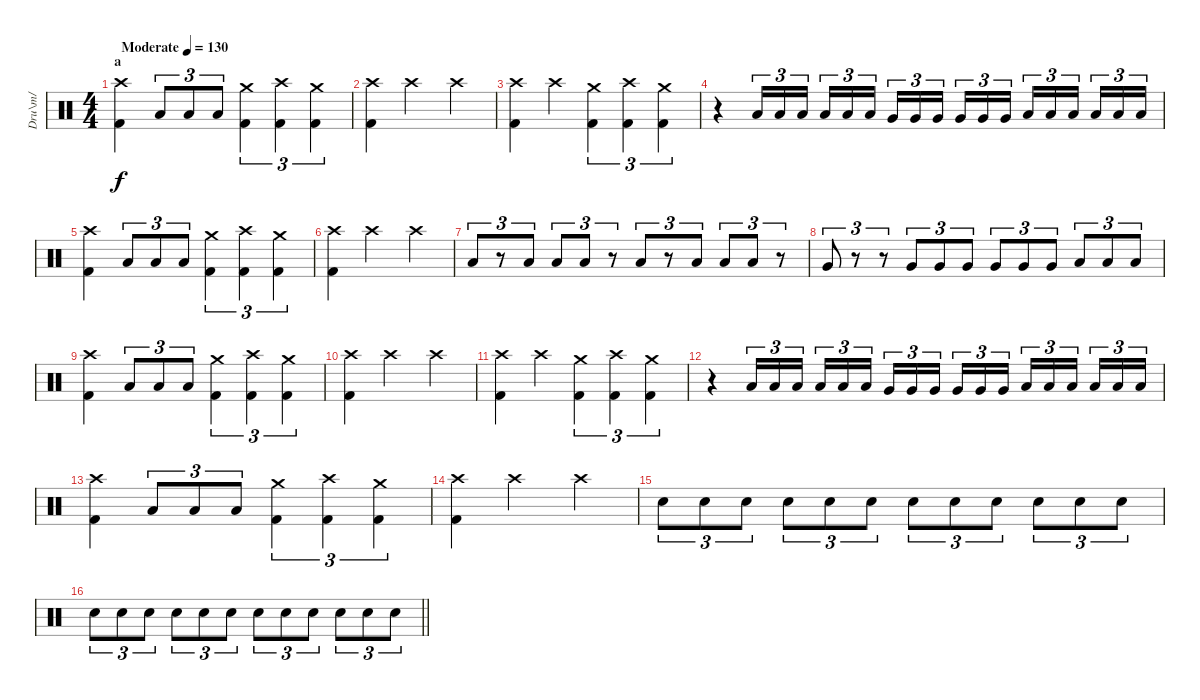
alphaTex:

\track ("Dru\\m/" "Dru\\m/") {instrument percussion}
\staff {score}
\articulation defaults
\ts (4 4)
\section ("" "a")
\tempo (130 "Moderate")
\clef neutral
\ks c
("Crash high (hit)" "Kick (hit) 2").4{dy f} "Low Tom (hit)".8{tu (3 2)} "Low Tom (hit)".8{tu (3 2)} "Low Tom (hit)".8{tu (3 2)} ("Crash medium (hit)" "Kick (hit) 2").4{tu (3 2)} ("Crash high (hit)" "Kick (hit) 2").4{tu (3 2)} ("Crash medium (hit)" "Kick (hit) 2").4{tu (3 2)} |
("Crash high (hit)" "Kick (hit) 2").4 "Crash high (hit)".2 "Crash high (hit)".4 |
("Crash high (hit)" "Kick (hit) 2").4 "Crash high (hit)".4 ("Crash medium (hit)" "Kick (hit) 2").4{tu (3 2)} ("Crash high (hit)" "Kick (hit) 2").4{tu (3 2)} ("Crash medium (hit)" "Kick (hit) 2").4{tu (3 2)} |
r.4 "Low Tom (hit)".16{tu (3 2)} "Low Tom (hit)".16{tu (3 2)} "Low Tom (hit)".16{tu (3 2) beam splitsecondary} "Low Tom (hit)".16{tu (3 2)} "Low Tom (hit)".16{tu (3 2)} "Low Tom (hit)".16{tu (3 2)} "Very Low Tom (hit)".16{tu (3 2)} "Very Low Tom (hit)".16{tu (3 2)} "Very Low Tom (hit)".16{tu (3 2) beam splitsecondary} "Very Low Tom (hit)".16{tu (3 2)} "Very Low Tom (hit)".16{tu (3 2)} "Very Low Tom (hit)".16{tu (3 2)} "Low Floor Tom (hit)".16{tu (3 2)} "Low Floor Tom (hit)".16{tu (3 2)} "Low Floor Tom (hit)".16{tu (3 2) beam splitsecondary} "Low Floor Tom (hit)".16{tu (3 2)} "Low Floor Tom (hit)".16{tu (3 2)} "Low Floor Tom (hit)".16{tu (3 2)} |
("Crash high (hit)" "Kick (hit) 2").4 "Low Tom (hit)".8{tu (3 2)} "Low Tom (hit)".8{tu (3 2)} "Low Tom (hit)".8{tu (3 2)} ("Crash medium (hit)" "Kick (hit) 2").4{tu (3 2)} ("Crash high (hit)" "Kick (hit) 2").4{tu (3 2)} ("Crash medium (hit)" "Kick (hit) 2").4{tu (3 2)} |
("Crash high (hit)" "Kick (hit) 2").4 "Crash high (hit)".2 "Crash high (hit)".4 |
"Low Tom (hit)".8{tu (3 2)} r.8{tu (3 2)} "Low Tom (hit)".8{tu (3 2)} "Low Tom (hit)".8{tu (3 2)} "Low Tom (hit)".8{tu (3 2)} r.8{tu (3 2)} "Low Tom (hit)".8{tu (3 2)} r.8{tu (3 2)} "Low Tom (hit)".8{tu (3 2)} "Low Tom (hit)".8{tu (3 2)} "Low Tom (hit)".8{tu (3 2)} r.8{tu (3 2)} |
"Very Low Tom (hit)".8{tu (3 2)} r.8{tu (3 2)} r.8{tu (3 2)} "Very Low Tom (hit)".8{tu (3 2)} "Very Low Tom (hit)".8{tu (3 2)} "Very Low Tom (hit)".8{tu (3 2)} "Very Low Tom (hit)".8{tu (3 2)} "Very Low Tom (hit)".8{tu (3 2)} "Very Low Tom (hit)".8{tu (3 2)} "Low Floor Tom (hit)".8{tu (3 2)} "Low Floor Tom (hit)".8{tu (3 2)} "Low Floor Tom (hit)".8{tu (3 2)} |
("Crash high (hit)" "Kick (hit) 2").4 "Low Tom (hit)".8{tu (3 2)} "Low Tom (hit)".8{tu (3 2)} "Low Tom (hit)".8{tu (3 2)} ("Crash medium (hit)" "Kick (hit) 2").4{tu (3 2)} ("Crash high (hit)" "Kick (hit) 2").4{tu (3 2)} ("Crash medium (hit)" "Kick (hit) 2").4{tu (3 2)} |
("Crash high (hit)" "Kick (hit) 2").4 "Crash high (hit)".2 "Crash high (hit)".4 |
("Crash high (hit)" "Kick (hit) 2").4 "Crash high (hit)".4 ("Crash medium (hit)" "Kick (hit) 2").4{tu (3 2)} ("Crash high (hit)" "Kick (hit) 2").4{tu (3 2)} ("Crash medium (hit)" "Kick (hit) 2").4{tu (3 2)} |
r.4 "Low Tom (hit)".16{tu (3 2)} "Low Tom (hit)".16{tu (3 2)} "Low Tom (hit)".16{tu (3 2) beam splitsecondary} "Low Tom (hit)".16{tu (3 2)} "Low Tom (hit)".16{tu (3 2)} "Low Tom (hit)".16{tu (3 2)} "Very Low Tom (hit)".16{tu (3 2)} "Very Low Tom (hit)".16{tu (3 2)} "Very Low Tom (hit)".16{tu (3 2) beam splitsecondary} "Very Low Tom (hit)".16{tu (3 2)} "Very Low Tom (hit)".16{tu (3 2)} "Very Low Tom (hit)".16{tu (3 2)} "Low Floor Tom (hit)".16{tu (3 2)} "Low Floor Tom (hit)".16{tu (3 2)} "Low Floor Tom (hit)".16{tu (3 2) beam splitsecondary} "Low Floor Tom (hit)".16{tu (3 2)} "Low Floor Tom (hit)".16{tu (3 2)} "Low Floor Tom (hit)".16{tu (3 2)} |
("Crash high (hit)" "Kick (hit) 2").4 "Low Tom (hit)".8{tu (3 2)} "Low Tom (hit)".8{tu (3 2)} "Low Tom (hit)".8{tu (3 2)} ("Crash medium (hit)" "Kick (hit) 2").4{tu (3 2)} ("Crash high (hit)" "Kick (hit) 2").4{tu (3 2)} ("Crash medium (hit)" "Kick (hit) 2").4{tu (3 2)} |
("Crash high (hit)" "Kick (hit) 2").4 "Crash high (hit)".2 "Crash high (hit)".4 |
"Electric Snare (hit)".8{tu (3 2)} "Electric Snare (hit)".8{tu (3 2)} "Electric Snare (hit)".8{tu (3 2)} "Electric Snare (hit)".8{tu (3 2)} "Electric Snare (hit)".8{tu (3 2)} "Electric Snare (hit)".8{tu (3 2)} "Electric Snare (hit)".8{tu (3 2)} "Electric Snare (hit)".8{tu (3 2)} "Electric Snare (hit)".8{tu (3 2)} "Electric Snare (hit)".8{tu (3 2)} "Electric Snare (hit)".8{tu (3 2)} "Electric Snare (hit)".8{tu (3 2)} |
\barLineRight lightlight "Electric Snare (hit)".8{tu (3 2)} "Electric Snare (hit)".8{tu (3 2)} "Electric Snare (hit)".8{tu (3 2)} "Electric Snare (hit)".8{tu (3 2)} "Electric Snare (hit)".8{tu (3 2)} "Electric Snare (hit)".8{tu (3 2)} "Electric Snare (hit)".8{tu (3 2)} "Electric Snare (hit)".8{tu (3 2)} "Electric Snare (hit)".8{tu (3 2)} "Electric Snare (hit)".8{tu (3 2)} "Electric Snare (hit)".8{tu (3 2)} "Electric Snare (hit)".8{tu (3 2)}
